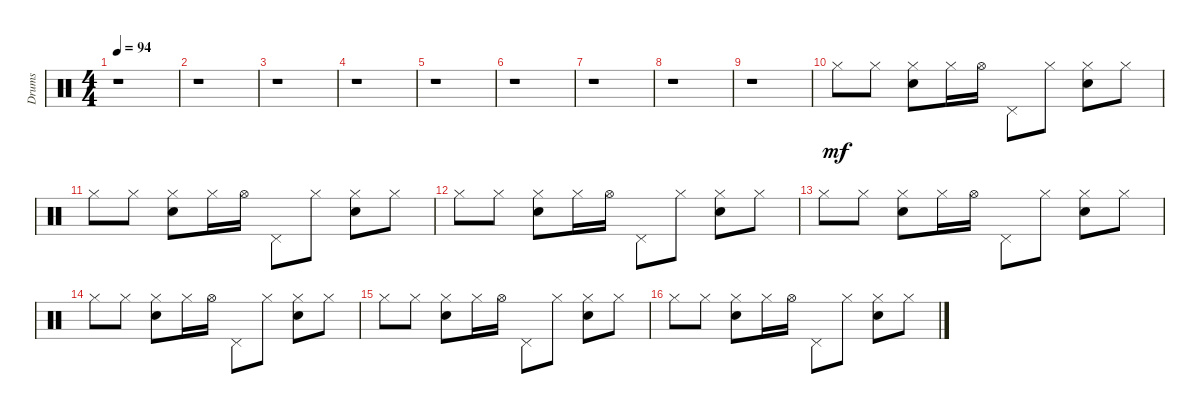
\track ("Drums" "Drums") {instrument percussion}
\staff {score}
\articulation defaults
\ts (4 4)
\tempo 94
\clef neutral
\ks c
r.1{dy mf} |
r.1 |
r.1 |
r.1 |
r.1 |
r.1 |
r.1 |
r.1 |
r.1 |
"Hi-Hat (closed)".8 "Hi-Hat (closed)".8 ("Hi-Hat (closed)" "Snare (hit) 2").8 "Hi-Hat (closed)".16 "Hi-Hat (open)".16 "Pedal Hi-Hat (hit)".8 "Hi-Hat (closed)".8 ("Hi-Hat (closed)" "Snare (hit) 2").8 "Hi-Hat (closed)".8 |
"Hi-Hat (closed)".8 "Hi-Hat (closed)".8 ("Hi-Hat (closed)" "Snare (hit) 2").8 "Hi-Hat (closed)".16 "Hi-Hat (open)".16 "Pedal Hi-Hat (hit)".8 "Hi-Hat (closed)".8 ("Hi-Hat (closed)" "Snare (hit) 2").8 "Hi-Hat (closed)".8 |
"Hi-Hat (closed)".8 "Hi-Hat (closed)".8 ("Hi-Hat (closed)" "Snare (hit) 2").8 "Hi-Hat (closed)".16 "Hi-Hat (open)".16 "Pedal Hi-Hat (hit)".8 "Hi-Hat (closed)".8 ("Hi-Hat (closed)" "Snare (hit) 2").8 "Hi-Hat (closed)".8 |
"Hi-Hat (closed)".8 "Hi-Hat (closed)".8 ("Hi-Hat (closed)" "Snare (hit) 2").8 "Hi-Hat (closed)".16 "Hi-Hat (open)".16 "Pedal Hi-Hat (hit)".8 "Hi-Hat (closed)".8 ("Hi-Hat (closed)" "Snare (hit) 2").8 "Hi-Hat (closed)".8 |
"Hi-Hat (closed)".8 "Hi-Hat (closed)".8 ("Hi-Hat (closed)" "Snare (hit) 2").8 "Hi-Hat (closed)".16 "Hi-Hat (open)".16 "Pedal Hi-Hat (hit)".8 "Hi-Hat (closed)".8 ("Hi-Hat (closed)" "Snare (hit) 2").8 "Hi-Hat (closed)".8 |
"Hi-Hat (closed)".8 "Hi-Hat (closed)".8 ("Hi-Hat (closed)" "Snare (hit) 2").8 "Hi-Hat (closed)".16 "Hi-Hat (open)".16 "Pedal Hi-Hat (hit)".8 "Hi-Hat (closed)".8 ("Hi-Hat (closed)" "Snare (hit) 2").8 "Hi-Hat (closed)".8 |
"Hi-Hat (closed)".8 "Hi-Hat (closed)".8 ("Hi-Hat (closed)" "Snare (hit) 2").8 "Hi-Hat (closed)".16 "Hi-Hat (open)".16 "Pedal Hi-Hat (hit)".8 "Hi-Hat (closed)".8 ("Hi-Hat (closed)" "Snare (hit) 2").8 "Hi-Hat (closed)".8
